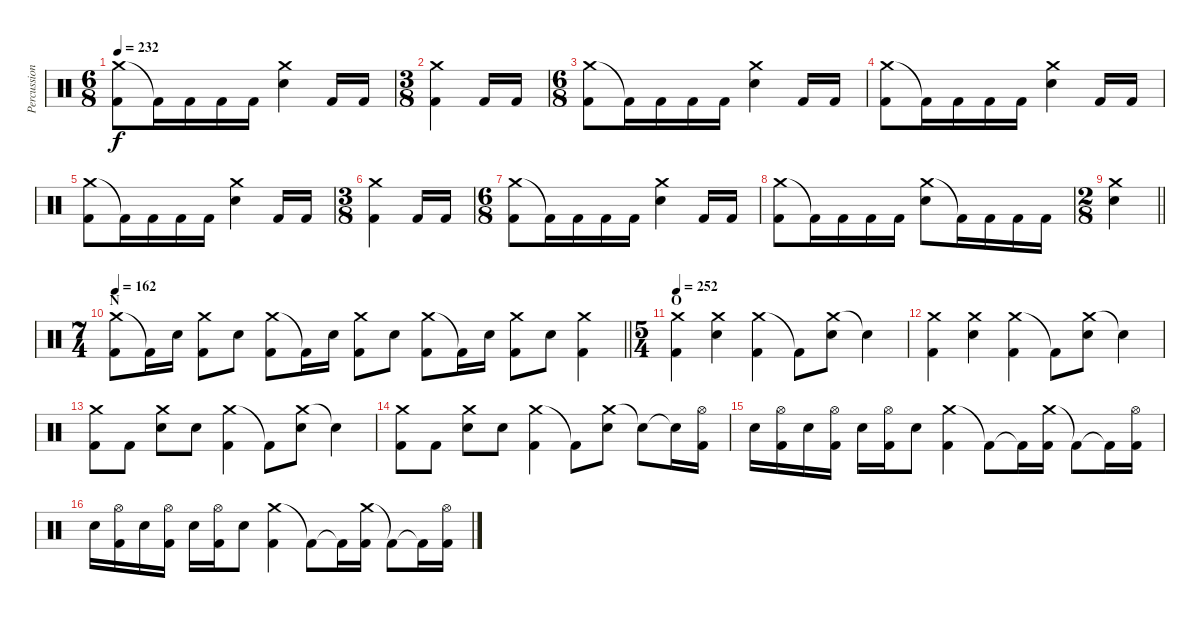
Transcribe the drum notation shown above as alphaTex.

\track ("Percussion" "Percussion") {instrument percussion}
\staff {score}
\articulation defaults
\ts (6 8)
\tempo 232
\clef neutral
\ks c
("Crash medium (hit)" "Kick (hit) 2").8{dy f} "Kick (hit) 2"{t}.16 "Kick (hit) 2".16 "Kick (hit) 2".16 "Kick (hit) 2".16 ("Crash medium (hit)" "Electric Snare (hit)").4 "Kick (hit) 2".16 "Kick (hit) 2".16 |
\ts (3 8)
("Crash medium (hit)" "Kick (hit) 2").4 "Kick (hit) 2".16 "Kick (hit) 2".16 |
\ts (6 8)
("Crash medium (hit)" "Kick (hit) 2").8 "Kick (hit) 2"{t}.16 "Kick (hit) 2".16 "Kick (hit) 2".16 "Kick (hit) 2".16 ("Crash medium (hit)" "Electric Snare (hit)").4 "Kick (hit) 2".16 "Kick (hit) 2".16 |
("Crash medium (hit)" "Kick (hit) 2").8 "Kick (hit) 2"{t}.16 "Kick (hit) 2".16 "Kick (hit) 2".16 "Kick (hit) 2".16 ("Crash medium (hit)" "Electric Snare (hit)").4 "Kick (hit) 2".16 "Kick (hit) 2".16 |
("Crash medium (hit)" "Kick (hit) 2").8 "Kick (hit) 2"{t}.16 "Kick (hit) 2".16 "Kick (hit) 2".16 "Kick (hit) 2".16 ("Crash medium (hit)" "Electric Snare (hit)").4 "Kick (hit) 2".16 "Kick (hit) 2".16 |
\ts (3 8)
("Crash medium (hit)" "Kick (hit) 2").4 "Kick (hit) 2".16 "Kick (hit) 2".16 |
\ts (6 8)
("Crash medium (hit)" "Kick (hit) 2").8 "Kick (hit) 2"{t}.16 "Kick (hit) 2".16 "Kick (hit) 2".16 "Kick (hit) 2".16 ("Crash medium (hit)" "Electric Snare (hit)").4 "Kick (hit) 2".16 "Kick (hit) 2".16 |
("Crash medium (hit)" "Kick (hit) 2").8 "Kick (hit) 2"{t}.16 "Kick (hit) 2".16 "Kick (hit) 2".16 "Kick (hit) 2".16 ("Crash medium (hit)" "Electric Snare (hit)").8 "Kick (hit) 2"{t}.16 "Kick (hit) 2".16 "Kick (hit) 2".16 "Kick (hit) 2".16 |
\ts (2 8)
\barLineRight lightlight
("Crash medium (hit)" "Electric Snare (hit)").4 |
\ts (7 4)
\section ("" "N")
\tempo 162
\barLineRight lightlight
("Crash medium (hit)" "Kick (hit) 2").8 "Kick (hit) 2"{t}.16 "Electric Snare (hit)".16 ("Crash medium (hit)" "Kick (hit) 2").8 "Electric Snare (hit)".8 ("Crash medium (hit)" "Kick (hit) 2").8 "Kick (hit) 2"{t}.16 "Electric Snare (hit)".16 ("Crash medium (hit)" "Kick (hit) 2").8 "Electric Snare (hit)".8 ("Crash medium (hit)" "Kick (hit) 2").8 "Kick (hit) 2"{t}.16 "Electric Snare (hit)".16 ("Crash medium (hit)" "Kick (hit) 2").8 "Electric Snare (hit)".8 ("Crash medium (hit)" "Kick (hit) 2").4 |
\ts (5 4)
\section ("" "O")
\tempo 252
("Crash medium (hit)" "Kick (hit) 2").4 ("Crash medium (hit)" "Electric Snare (hit)").4 ("Crash medium (hit)" "Kick (hit) 2").4 "Kick (hit) 2"{t}.8 ("Crash medium (hit)" "Electric Snare (hit)").8 "Electric Snare (hit)"{t}.4 |
("Crash medium (hit)" "Kick (hit) 2").4 ("Crash medium (hit)" "Electric Snare (hit)").4 ("Crash medium (hit)" "Kick (hit) 2").4 "Kick (hit) 2"{t}.8 ("Crash medium (hit)" "Electric Snare (hit)").8 "Electric Snare (hit)"{t}.4 |
("Crash medium (hit)" "Kick (hit) 2").8 "Kick (hit) 2".8 ("Crash medium (hit)" "Electric Snare (hit)").8 "Electric Snare (hit)".8 ("Crash medium (hit)" "Kick (hit) 2").4 "Kick (hit) 2"{t}.8 ("Crash medium (hit)" "Electric Snare (hit)").8 "Electric Snare (hit)"{t}.4 |
("Crash medium (hit)" "Kick (hit) 2").8 "Kick (hit) 2".8 ("Crash medium (hit)" "Electric Snare (hit)").8 "Electric Snare (hit)".8 ("Crash medium (hit)" "Kick (hit) 2").4 "Kick (hit) 2"{t}.8 ("Crash medium (hit)" "Electric Snare (hit)").8 "Electric Snare (hit)"{t}.8 "Electric Snare (hit)"{t}.16 ("Hi-Hat (open)" "Kick (hit) 2").16 |
"Electric Snare (hit)".16 ("Hi-Hat (open)" "Kick (hit) 2").16 "Electric Snare (hit)".16 ("Hi-Hat (open)" "Kick (hit) 2").16 "Electric Snare (hit)".16 ("Hi-Hat (open)" "Kick (hit) 2").16 "Electric Snare (hit)".8 ("Crash medium (hit)" "Kick (hit) 2").4 "Kick (hit) 2"{t}.8 "Kick (hit) 2"{t}.16 ("Crash medium (hit)" "Kick (hit) 2").16 "Kick (hit) 2"{t}.8 "Kick (hit) 2"{t}.16 ("Hi-Hat (open)" "Kick (hit) 2").16 |
"Electric Snare (hit)".16 ("Hi-Hat (open)" "Kick (hit) 2").16 "Electric Snare (hit)".16 ("Hi-Hat (open)" "Kick (hit) 2").16 "Electric Snare (hit)".16 ("Hi-Hat (open)" "Kick (hit) 2").16 "Electric Snare (hit)".8 ("Crash medium (hit)" "Kick (hit) 2").4 "Kick (hit) 2"{t}.8 "Kick (hit) 2"{t}.16 ("Crash medium (hit)" "Kick (hit) 2").16 "Kick (hit) 2"{t}.8 "Kick (hit) 2"{t}.16 ("Hi-Hat (open)" "Kick (hit) 2").16
